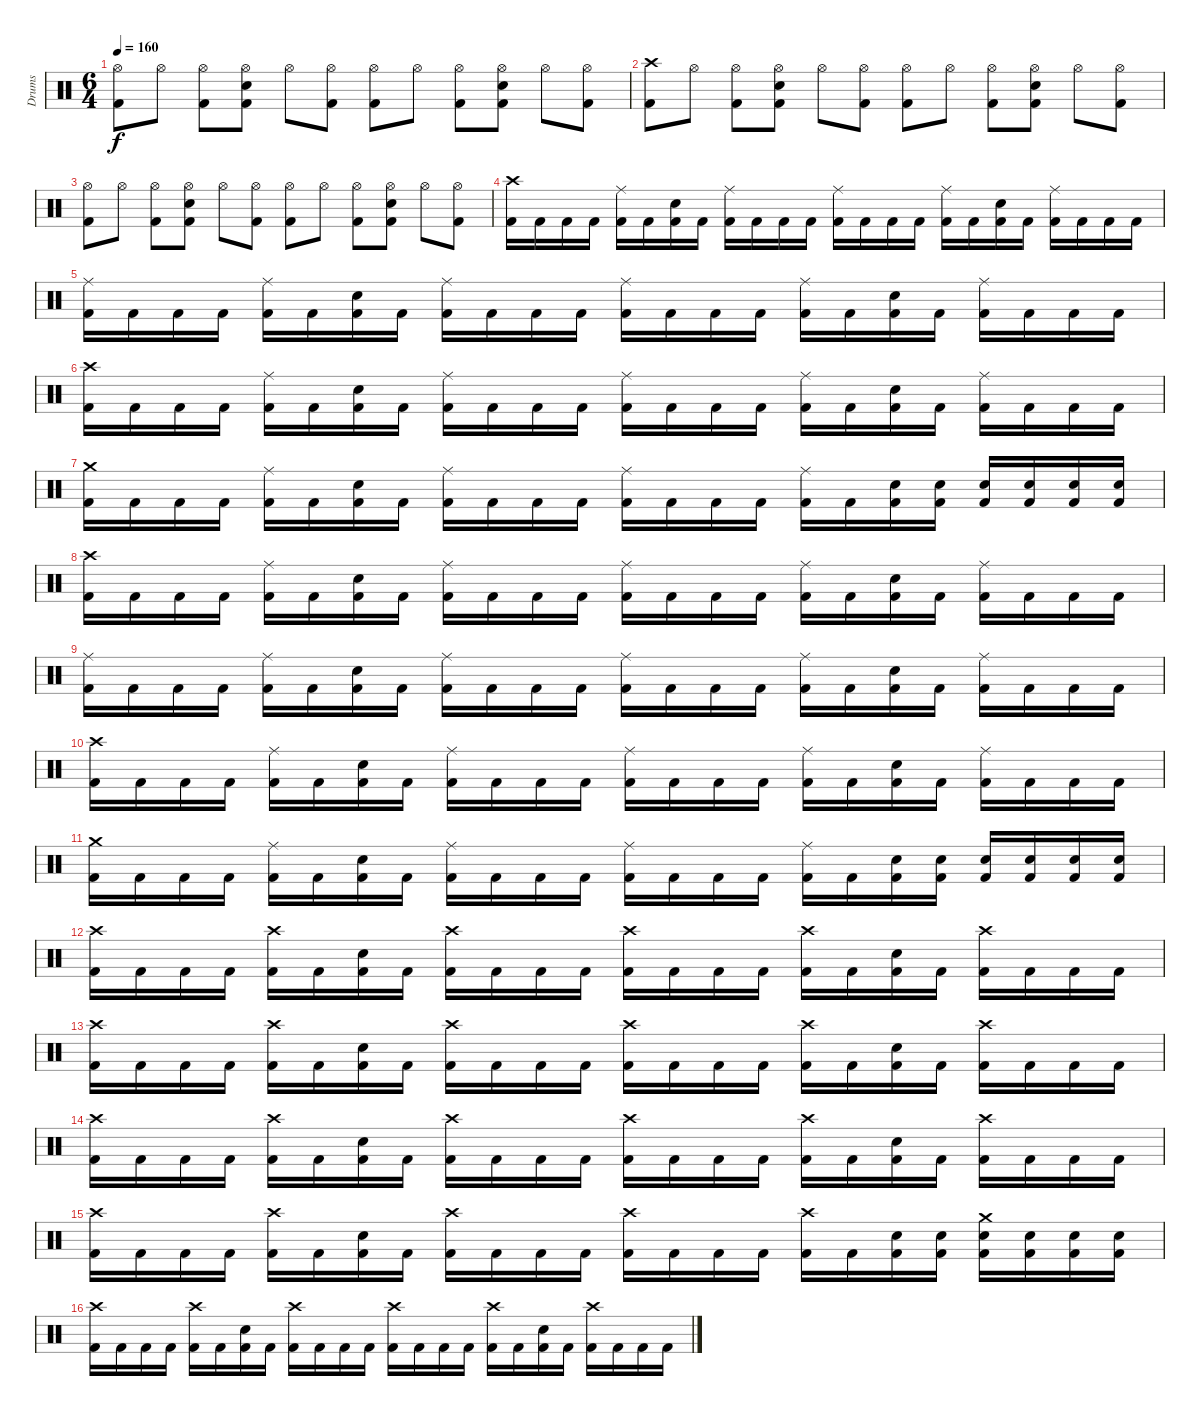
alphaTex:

\track ("Drums" "Drums") {instrument percussion}
\staff {score}
\articulation defaults
\ts (6 4)
\tempo 160
\clef neutral
\ks c
("Hi-Hat (open)" "Kick (hit) 2").8{dy f} "Hi-Hat (open)".8 ("Hi-Hat (open)" "Kick (hit) 2").8 ("Hi-Hat (open)" "Snare (hit) 2" "Kick (hit) 2").8 "Hi-Hat (open)".8 ("Hi-Hat (open)" "Kick (hit) 2").8 ("Hi-Hat (open)" "Kick (hit) 2").8 "Hi-Hat (open)".8 ("Hi-Hat (open)" "Kick (hit) 2").8 ("Hi-Hat (open)" "Snare (hit) 2" "Kick (hit) 2").8 "Hi-Hat (open)".8 ("Hi-Hat (open)" "Kick (hit) 2").8 |
("Crash high (hit)" "Kick (hit) 2").8 "Hi-Hat (open)".8 ("Hi-Hat (open)" "Kick (hit) 2").8 ("Hi-Hat (open)" "Snare (hit) 2" "Kick (hit) 2").8 "Hi-Hat (open)".8 ("Hi-Hat (open)" "Kick (hit) 2").8 ("Hi-Hat (open)" "Kick (hit) 2").8 "Hi-Hat (open)".8 ("Hi-Hat (open)" "Kick (hit) 2").8 ("Hi-Hat (open)" "Snare (hit) 2" "Kick (hit) 2").8 "Hi-Hat (open)".8 ("Hi-Hat (open)" "Kick (hit) 2").8 |
("Hi-Hat (open)" "Kick (hit) 2").8 "Hi-Hat (open)".8 ("Hi-Hat (open)" "Kick (hit) 2").8 ("Hi-Hat (open)" "Snare (hit) 2" "Kick (hit) 2").8 "Hi-Hat (open)".8 ("Hi-Hat (open)" "Kick (hit) 2").8 ("Hi-Hat (open)" "Kick (hit) 2").8 "Hi-Hat (open)".8 ("Hi-Hat (open)" "Kick (hit) 2").8 ("Hi-Hat (open)" "Snare (hit) 2" "Kick (hit) 2").8 "Hi-Hat (open)".8 ("Hi-Hat (open)" "Kick (hit) 2").8 |
("Crash high (hit)" "Kick (hit) 2").16 "Kick (hit) 2".16 "Kick (hit) 2".16 "Kick (hit) 2".16 ("Ride (middle)" "Kick (hit) 2").16 "Kick (hit) 2".16 ("Snare (hit) 2" "Kick (hit) 2").16 "Kick (hit) 2".16 ("Ride (middle)" "Kick (hit) 2").16 "Kick (hit) 2".16 "Kick (hit) 2".16 "Kick (hit) 2".16 ("Ride (middle)" "Kick (hit) 2").16 "Kick (hit) 2".16 "Kick (hit) 2".16 "Kick (hit) 2".16 ("Ride (middle)" "Kick (hit) 2").16 "Kick (hit) 2".16 ("Snare (hit) 2" "Kick (hit) 2").16 "Kick (hit) 2".16 ("Ride (middle)" "Kick (hit) 2").16 "Kick (hit) 2".16 "Kick (hit) 2".16 "Kick (hit) 2".16 |
("Ride (middle)" "Kick (hit) 2").16 "Kick (hit) 2".16 "Kick (hit) 2".16 "Kick (hit) 2".16 ("Ride (middle)" "Kick (hit) 2").16 "Kick (hit) 2".16 ("Snare (hit) 2" "Kick (hit) 2").16 "Kick (hit) 2".16 ("Ride (middle)" "Kick (hit) 2").16 "Kick (hit) 2".16 "Kick (hit) 2".16 "Kick (hit) 2".16 ("Ride (middle)" "Kick (hit) 2").16 "Kick (hit) 2".16 "Kick (hit) 2".16 "Kick (hit) 2".16 ("Ride (middle)" "Kick (hit) 2").16 "Kick (hit) 2".16 ("Snare (hit) 2" "Kick (hit) 2").16 "Kick (hit) 2".16 ("Ride (middle)" "Kick (hit) 2").16 "Kick (hit) 2".16 "Kick (hit) 2".16 "Kick (hit) 2".16 |
("Crash high (hit)" "Kick (hit) 2").16 "Kick (hit) 2".16 "Kick (hit) 2".16 "Kick (hit) 2".16 ("Ride (middle)" "Kick (hit) 2").16 "Kick (hit) 2".16 ("Snare (hit) 2" "Kick (hit) 2").16 "Kick (hit) 2".16 ("Ride (middle)" "Kick (hit) 2").16 "Kick (hit) 2".16 "Kick (hit) 2".16 "Kick (hit) 2".16 ("Ride (middle)" "Kick (hit) 2").16 "Kick (hit) 2".16 "Kick (hit) 2".16 "Kick (hit) 2".16 ("Ride (middle)" "Kick (hit) 2").16 "Kick (hit) 2".16 ("Snare (hit) 2" "Kick (hit) 2").16 "Kick (hit) 2".16 ("Ride (middle)" "Kick (hit) 2").16 "Kick (hit) 2".16 "Kick (hit) 2".16 "Kick (hit) 2".16 |
("Crash medium (hit)" "Kick (hit) 2").16 "Kick (hit) 2".16 "Kick (hit) 2".16 "Kick (hit) 2".16 ("Ride (middle)" "Kick (hit) 2").16 "Kick (hit) 2".16 ("Snare (hit) 2" "Kick (hit) 2").16 "Kick (hit) 2".16 ("Ride (middle)" "Kick (hit) 2").16 "Kick (hit) 2".16 "Kick (hit) 2".16 "Kick (hit) 2".16 ("Ride (middle)" "Kick (hit) 2").16 "Kick (hit) 2".16 "Kick (hit) 2".16 "Kick (hit) 2".16 ("Ride (middle)" "Kick (hit) 2").16 "Kick (hit) 2".16 ("Snare (hit) 2" "Kick (hit) 2").16 ("Snare (hit) 2" "Kick (hit) 2").16 ("Snare (hit) 2" "Kick (hit) 2").16 ("Snare (hit) 2" "Kick (hit) 2").16 ("Snare (hit) 2" "Kick (hit) 2").16 ("Snare (hit) 2" "Kick (hit) 2").16 |
("Crash high (hit)" "Kick (hit) 2").16 "Kick (hit) 2".16 "Kick (hit) 2".16 "Kick (hit) 2".16 ("Ride (middle)" "Kick (hit) 2").16 "Kick (hit) 2".16 ("Snare (hit) 2" "Kick (hit) 2").16 "Kick (hit) 2".16 ("Ride (middle)" "Kick (hit) 2").16 "Kick (hit) 2".16 "Kick (hit) 2".16 "Kick (hit) 2".16 ("Ride (middle)" "Kick (hit) 2").16 "Kick (hit) 2".16 "Kick (hit) 2".16 "Kick (hit) 2".16 ("Ride (middle)" "Kick (hit) 2").16 "Kick (hit) 2".16 ("Snare (hit) 2" "Kick (hit) 2").16 "Kick (hit) 2".16 ("Ride (middle)" "Kick (hit) 2").16 "Kick (hit) 2".16 "Kick (hit) 2".16 "Kick (hit) 2".16 |
("Ride (middle)" "Kick (hit) 2").16 "Kick (hit) 2".16 "Kick (hit) 2".16 "Kick (hit) 2".16 ("Ride (middle)" "Kick (hit) 2").16 "Kick (hit) 2".16 ("Snare (hit) 2" "Kick (hit) 2").16 "Kick (hit) 2".16 ("Ride (middle)" "Kick (hit) 2").16 "Kick (hit) 2".16 "Kick (hit) 2".16 "Kick (hit) 2".16 ("Ride (middle)" "Kick (hit) 2").16 "Kick (hit) 2".16 "Kick (hit) 2".16 "Kick (hit) 2".16 ("Ride (middle)" "Kick (hit) 2").16 "Kick (hit) 2".16 ("Snare (hit) 2" "Kick (hit) 2").16 "Kick (hit) 2".16 ("Ride (middle)" "Kick (hit) 2").16 "Kick (hit) 2".16 "Kick (hit) 2".16 "Kick (hit) 2".16 |
("Crash high (hit)" "Kick (hit) 2").16 "Kick (hit) 2".16 "Kick (hit) 2".16 "Kick (hit) 2".16 ("Ride (middle)" "Kick (hit) 2").16 "Kick (hit) 2".16 ("Snare (hit) 2" "Kick (hit) 2").16 "Kick (hit) 2".16 ("Ride (middle)" "Kick (hit) 2").16 "Kick (hit) 2".16 "Kick (hit) 2".16 "Kick (hit) 2".16 ("Ride (middle)" "Kick (hit) 2").16 "Kick (hit) 2".16 "Kick (hit) 2".16 "Kick (hit) 2".16 ("Ride (middle)" "Kick (hit) 2").16 "Kick (hit) 2".16 ("Snare (hit) 2" "Kick (hit) 2").16 "Kick (hit) 2".16 ("Ride (middle)" "Kick (hit) 2").16 "Kick (hit) 2".16 "Kick (hit) 2".16 "Kick (hit) 2".16 |
("Crash medium (hit)" "Kick (hit) 2").16 "Kick (hit) 2".16 "Kick (hit) 2".16 "Kick (hit) 2".16 ("Ride (middle)" "Kick (hit) 2").16 "Kick (hit) 2".16 ("Snare (hit) 2" "Kick (hit) 2").16 "Kick (hit) 2".16 ("Ride (middle)" "Kick (hit) 2").16 "Kick (hit) 2".16 "Kick (hit) 2".16 "Kick (hit) 2".16 ("Ride (middle)" "Kick (hit) 2").16 "Kick (hit) 2".16 "Kick (hit) 2".16 "Kick (hit) 2".16 ("Ride (middle)" "Kick (hit) 2").16 "Kick (hit) 2".16 ("Snare (hit) 2" "Kick (hit) 2").16 ("Snare (hit) 2" "Kick (hit) 2").16 ("Snare (hit) 2" "Kick (hit) 2").16 ("Snare (hit) 2" "Kick (hit) 2").16 ("Snare (hit) 2" "Kick (hit) 2").16 ("Snare (hit) 2" "Kick (hit) 2").16 |
("Crash high (hit)" "Kick (hit) 2").16 "Kick (hit) 2".16 "Kick (hit) 2".16 "Kick (hit) 2".16 ("Crash high (hit)" "Kick (hit) 2").16 "Kick (hit) 2".16 ("Snare (hit) 2" "Kick (hit) 2").16 "Kick (hit) 2".16 ("Crash high (hit)" "Kick (hit) 2").16 "Kick (hit) 2".16 "Kick (hit) 2".16 "Kick (hit) 2".16 ("Crash high (hit)" "Kick (hit) 2").16 "Kick (hit) 2".16 "Kick (hit) 2".16 "Kick (hit) 2".16 ("Crash high (hit)" "Kick (hit) 2").16 "Kick (hit) 2".16 ("Snare (hit) 2" "Kick (hit) 2").16 "Kick (hit) 2".16 ("Crash high (hit)" "Kick (hit) 2").16 "Kick (hit) 2".16 "Kick (hit) 2".16 "Kick (hit) 2".16 |
("Crash high (hit)" "Kick (hit) 2").16 "Kick (hit) 2".16 "Kick (hit) 2".16 "Kick (hit) 2".16 ("Crash high (hit)" "Kick (hit) 2").16 "Kick (hit) 2".16 ("Snare (hit) 2" "Kick (hit) 2").16 "Kick (hit) 2".16 ("Crash high (hit)" "Kick (hit) 2").16 "Kick (hit) 2".16 "Kick (hit) 2".16 "Kick (hit) 2".16 ("Crash high (hit)" "Kick (hit) 2").16 "Kick (hit) 2".16 "Kick (hit) 2".16 "Kick (hit) 2".16 ("Crash high (hit)" "Kick (hit) 2").16 "Kick (hit) 2".16 ("Snare (hit) 2" "Kick (hit) 2").16 "Kick (hit) 2".16 ("Crash high (hit)" "Kick (hit) 2").16 "Kick (hit) 2".16 "Kick (hit) 2".16 "Kick (hit) 2".16 |
("Crash high (hit)" "Kick (hit) 2").16 "Kick (hit) 2".16 "Kick (hit) 2".16 "Kick (hit) 2".16 ("Crash high (hit)" "Kick (hit) 2").16 "Kick (hit) 2".16 ("Snare (hit) 2" "Kick (hit) 2").16 "Kick (hit) 2".16 ("Crash high (hit)" "Kick (hit) 2").16 "Kick (hit) 2".16 "Kick (hit) 2".16 "Kick (hit) 2".16 ("Crash high (hit)" "Kick (hit) 2").16 "Kick (hit) 2".16 "Kick (hit) 2".16 "Kick (hit) 2".16 ("Crash high (hit)" "Kick (hit) 2").16 "Kick (hit) 2".16 ("Snare (hit) 2" "Kick (hit) 2").16 "Kick (hit) 2".16 ("Crash high (hit)" "Kick (hit) 2").16 "Kick (hit) 2".16 "Kick (hit) 2".16 "Kick (hit) 2".16 |
("Crash high (hit)" "Kick (hit) 2").16 "Kick (hit) 2".16 "Kick (hit) 2".16 "Kick (hit) 2".16 ("Crash high (hit)" "Kick (hit) 2").16 "Kick (hit) 2".16 ("Snare (hit) 2" "Kick (hit) 2").16 "Kick (hit) 2".16 ("Crash high (hit)" "Kick (hit) 2").16 "Kick (hit) 2".16 "Kick (hit) 2".16 "Kick (hit) 2".16 ("Crash high (hit)" "Kick (hit) 2").16 "Kick (hit) 2".16 "Kick (hit) 2".16 "Kick (hit) 2".16 ("Crash high (hit)" "Kick (hit) 2").16 "Kick (hit) 2".16 ("Snare (hit) 2" "Kick (hit) 2").16 ("Snare (hit) 2" "Kick (hit) 2").16 ("Crash medium (hit)" "Snare (hit) 2" "Kick (hit) 2").16 ("Snare (hit) 2" "Kick (hit) 2").16 ("Snare (hit) 2" "Kick (hit) 2").16 ("Snare (hit) 2" "Kick (hit) 2").16 |
("Crash high (hit)" "Kick (hit) 2").16 "Kick (hit) 2".16 "Kick (hit) 2".16 "Kick (hit) 2".16 ("Crash high (hit)" "Kick (hit) 2").16 "Kick (hit) 2".16 ("Snare (hit) 2" "Kick (hit) 2").16 "Kick (hit) 2".16 ("Crash high (hit)" "Kick (hit) 2").16 "Kick (hit) 2".16 "Kick (hit) 2".16 "Kick (hit) 2".16 ("Crash high (hit)" "Kick (hit) 2").16 "Kick (hit) 2".16 "Kick (hit) 2".16 "Kick (hit) 2".16 ("Crash high (hit)" "Kick (hit) 2").16 "Kick (hit) 2".16 ("Snare (hit) 2" "Kick (hit) 2").16 "Kick (hit) 2".16 ("Crash high (hit)" "Kick (hit) 2").16 "Kick (hit) 2".16 "Kick (hit) 2".16 "Kick (hit) 2".16
